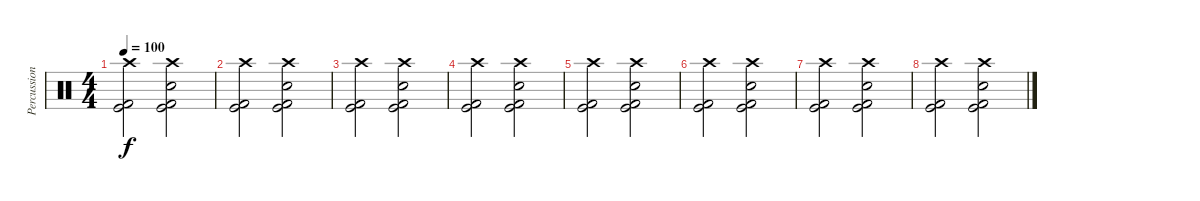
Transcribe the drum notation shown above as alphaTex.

\track ("Percussion" "Percussion") {instrument percussion}
\staff {score}
\articulation defaults
\ts (4 4)
\tempo 100
\clef neutral
\ks c
("Crash high (hit)" "Kick (hit)" "Kick (hit) 2").2{dy f} ("Electric Snare (hit)" "Crash high (hit)" "Kick (hit) 2" "Kick (hit)").2 |
("Crash high (hit)" "Kick (hit)" "Kick (hit) 2").2 ("Electric Snare (hit)" "Crash high (hit)" "Kick (hit) 2" "Kick (hit)").2 |
("Crash high (hit)" "Kick (hit)" "Kick (hit) 2").2 ("Electric Snare (hit)" "Crash high (hit)" "Kick (hit) 2" "Kick (hit)").2 |
("Crash high (hit)" "Kick (hit)" "Kick (hit) 2").2 ("Electric Snare (hit)" "Crash high (hit)" "Kick (hit) 2" "Kick (hit)").2 |
("Crash high (hit)" "Kick (hit)" "Kick (hit) 2").2 ("Electric Snare (hit)" "Crash high (hit)" "Kick (hit) 2" "Kick (hit)").2 |
("Crash high (hit)" "Kick (hit)" "Kick (hit) 2").2 ("Electric Snare (hit)" "Crash high (hit)" "Kick (hit) 2" "Kick (hit)").2 |
("Crash high (hit)" "Kick (hit)" "Kick (hit) 2").2 ("Electric Snare (hit)" "Crash high (hit)" "Kick (hit) 2" "Kick (hit)").2 |
("Crash high (hit)" "Kick (hit)" "Kick (hit) 2").2 ("Electric Snare (hit)" "Crash high (hit)" "Kick (hit) 2" "Kick (hit)").2
